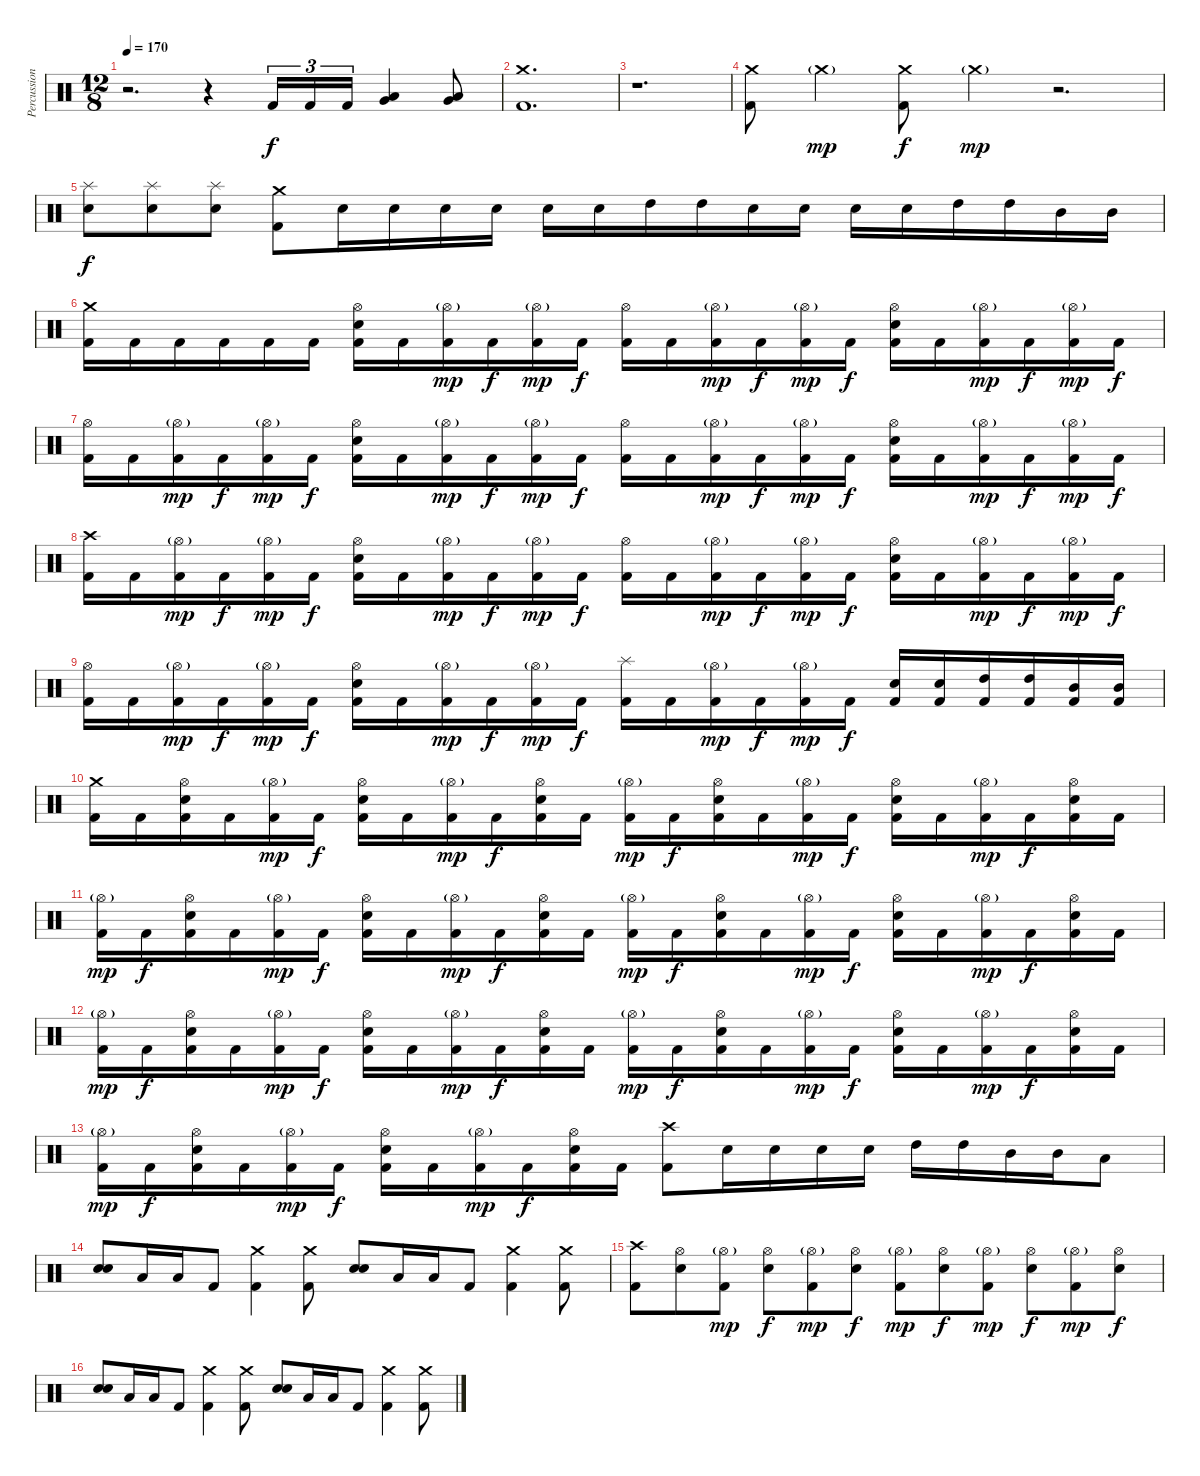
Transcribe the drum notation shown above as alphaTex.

\track ("Percussion" "Percussion") {instrument percussion}
\staff {score}
\articulation defaults
\ts (12 8)
\tempo 170
\clef neutral
\ks c
r.2{d dy mp} r.4 "Kick (hit) 2".16{tu (3 2) dy f} "Kick (hit) 2".16{tu (3 2)} "Kick (hit) 2".16{tu (3 2)} ("Very Low Tom (hit)" "Low Floor Tom (hit)").4{bd 240} ("Very Low Tom (hit)" "Low Floor Tom (hit)").8{bd 240} |
("Crash medium (hit)" "Kick (hit) 2").1{d} |
r.1{d} |
("Crash medium (hit)" "Kick (hit) 2").8 "Crash medium (hit)"{g}.4{dy mp} ("Crash medium (hit)" "Kick (hit) 2").8{dy f} "Crash medium (hit)"{g}.4{dy mp} r.2{d} |
("Splash (hit)" "Electric Snare (hit)").8{dy f} ("Splash (hit)" "Electric Snare (hit)").8 ("Splash (hit)" "Electric Snare (hit)").8 ("Crash medium (hit)" "Kick (hit) 2").8 "Electric Snare (hit)".16 "Electric Snare (hit)".16 "Electric Snare (hit)".16 "Electric Snare (hit)".16 "Electric Snare (hit)".16 "Electric Snare (hit)".16 "High Tom (hit)".16 "High Tom (hit)".16 "Electric Snare (hit)".16 "Electric Snare (hit)".16 "Electric Snare (hit)".16 "Electric Snare (hit)".16 "High Tom (hit)".16 "High Tom (hit)".16 "Mid Tom (hit)".16 "Mid Tom (hit)".16 |
("Crash medium (hit)" "Kick (hit) 2").16 "Kick (hit) 2".16 "Kick (hit) 2".16 "Kick (hit) 2".16 "Kick (hit) 2".16 "Kick (hit) 2".16 ("Hi-Hat (open)" "Electric Snare (hit)" "Kick (hit) 2").16 "Kick (hit) 2".16 ("Hi-Hat (open)"{g} "Kick (hit) 2").16{dy mp} "Kick (hit) 2".16{dy f} ("Hi-Hat (open)"{g} "Kick (hit) 2").16{dy mp} "Kick (hit) 2".16{dy f} ("Hi-Hat (open)" "Kick (hit) 2").16 "Kick (hit) 2".16 ("Hi-Hat (open)"{g} "Kick (hit) 2").16{dy mp} "Kick (hit) 2".16{dy f} ("Hi-Hat (open)"{g} "Kick (hit) 2").16{dy mp} "Kick (hit) 2".16{dy f} ("Hi-Hat (open)" "Electric Snare (hit)" "Kick (hit) 2").16 "Kick (hit) 2".16 ("Hi-Hat (open)"{g} "Kick (hit) 2").16{dy mp} "Kick (hit) 2".16{dy f} ("Hi-Hat (open)"{g} "Kick (hit) 2").16{dy mp} "Kick (hit) 2".16{dy f} |
("Hi-Hat (open)" "Kick (hit) 2").16 "Kick (hit) 2".16 ("Hi-Hat (open)"{g} "Kick (hit) 2").16{dy mp} "Kick (hit) 2".16{dy f} ("Hi-Hat (open)"{g} "Kick (hit) 2").16{dy mp} "Kick (hit) 2".16{dy f} ("Hi-Hat (open)" "Electric Snare (hit)" "Kick (hit) 2").16 "Kick (hit) 2".16 ("Hi-Hat (open)"{g} "Kick (hit) 2").16{dy mp} "Kick (hit) 2".16{dy f} ("Hi-Hat (open)"{g} "Kick (hit) 2").16{dy mp} "Kick (hit) 2".16{dy f} ("Hi-Hat (open)" "Kick (hit) 2").16 "Kick (hit) 2".16 ("Hi-Hat (open)"{g} "Kick (hit) 2").16{dy mp} "Kick (hit) 2".16{dy f} ("Hi-Hat (open)"{g} "Kick (hit) 2").16{dy mp} "Kick (hit) 2".16{dy f} ("Hi-Hat (open)" "Electric Snare (hit)" "Kick (hit) 2").16 "Kick (hit) 2".16 ("Hi-Hat (open)"{g} "Kick (hit) 2").16{dy mp} "Kick (hit) 2".16{dy f} ("Hi-Hat (open)"{g} "Kick (hit) 2").16{dy mp} "Kick (hit) 2".16{dy f} |
("Crash high (hit)" "Kick (hit) 2").16 "Kick (hit) 2".16 ("Hi-Hat (open)"{g} "Kick (hit) 2").16{dy mp} "Kick (hit) 2".16{dy f} ("Hi-Hat (open)"{g} "Kick (hit) 2").16{dy mp} "Kick (hit) 2".16{dy f} ("Hi-Hat (open)" "Electric Snare (hit)" "Kick (hit) 2").16 "Kick (hit) 2".16 ("Hi-Hat (open)"{g} "Kick (hit) 2").16{dy mp} "Kick (hit) 2".16{dy f} ("Hi-Hat (open)"{g} "Kick (hit) 2").16{dy mp} "Kick (hit) 2".16{dy f} ("Hi-Hat (open)" "Kick (hit) 2").16 "Kick (hit) 2".16 ("Hi-Hat (open)"{g} "Kick (hit) 2").16{dy mp} "Kick (hit) 2".16{dy f} ("Hi-Hat (open)"{g} "Kick (hit) 2").16{dy mp} "Kick (hit) 2".16{dy f} ("Hi-Hat (open)" "Electric Snare (hit)" "Kick (hit) 2").16 "Kick (hit) 2".16 ("Hi-Hat (open)"{g} "Kick (hit) 2").16{dy mp} "Kick (hit) 2".16{dy f} ("Hi-Hat (open)"{g} "Kick (hit) 2").16{dy mp} "Kick (hit) 2".16{dy f} |
("Hi-Hat (open)" "Kick (hit) 2").16 "Kick (hit) 2".16 ("Hi-Hat (open)"{g} "Kick (hit) 2").16{dy mp} "Kick (hit) 2".16{dy f} ("Hi-Hat (open)"{g} "Kick (hit) 2").16{dy mp} "Kick (hit) 2".16{dy f} ("Hi-Hat (open)" "Electric Snare (hit)" "Kick (hit) 2").16 "Kick (hit) 2".16 ("Hi-Hat (open)"{g} "Kick (hit) 2").16{dy mp} "Kick (hit) 2".16{dy f} ("Hi-Hat (open)"{g} "Kick (hit) 2").16{dy mp} "Kick (hit) 2".16{dy f} ("Splash (hit)" "Kick (hit) 2").16 "Kick (hit) 2".16 ("Hi-Hat (open)"{g} "Kick (hit) 2").16{dy mp} "Kick (hit) 2".16{dy f} ("Hi-Hat (open)"{g} "Kick (hit) 2").16{dy mp} "Kick (hit) 2".16{dy f} ("Electric Snare (hit)" "Kick (hit) 2").16 ("Electric Snare (hit)" "Kick (hit) 2").16 ("High Tom (hit)" "Kick (hit) 2").16 ("High Tom (hit)" "Kick (hit) 2").16 ("Mid Tom (hit)" "Kick (hit) 2").16 ("Mid Tom (hit)" "Kick (hit) 2").16 |
("Crash medium (hit)" "Kick (hit) 2").16 "Kick (hit) 2".16 ("Hi-Hat (open)" "Electric Snare (hit)" "Kick (hit) 2").16 "Kick (hit) 2".16 ("Hi-Hat (open)"{g} "Kick (hit) 2").16{dy mp} "Kick (hit) 2".16{dy f} ("Hi-Hat (open)" "Electric Snare (hit)" "Kick (hit) 2").16 "Kick (hit) 2".16 ("Hi-Hat (open)"{g} "Kick (hit) 2").16{dy mp} "Kick (hit) 2".16{dy f} ("Hi-Hat (open)" "Electric Snare (hit)" "Kick (hit) 2").16 "Kick (hit) 2".16 ("Hi-Hat (open)"{g} "Kick (hit) 2").16{dy mp} "Kick (hit) 2".16{dy f} ("Hi-Hat (open)" "Electric Snare (hit)" "Kick (hit) 2").16 "Kick (hit) 2".16 ("Hi-Hat (open)"{g} "Kick (hit) 2").16{dy mp} "Kick (hit) 2".16{dy f} ("Hi-Hat (open)" "Electric Snare (hit)" "Kick (hit) 2").16 "Kick (hit) 2".16 ("Hi-Hat (open)"{g} "Kick (hit) 2").16{dy mp} "Kick (hit) 2".16{dy f} ("Hi-Hat (open)" "Electric Snare (hit)" "Kick (hit) 2").16 "Kick (hit) 2".16 |
("Hi-Hat (open)"{g} "Kick (hit) 2").16{dy mp} "Kick (hit) 2".16{dy f} ("Hi-Hat (open)" "Electric Snare (hit)" "Kick (hit) 2").16 "Kick (hit) 2".16 ("Hi-Hat (open)"{g} "Kick (hit) 2").16{dy mp} "Kick (hit) 2".16{dy f} ("Hi-Hat (open)" "Electric Snare (hit)" "Kick (hit) 2").16 "Kick (hit) 2".16 ("Hi-Hat (open)"{g} "Kick (hit) 2").16{dy mp} "Kick (hit) 2".16{dy f} ("Hi-Hat (open)" "Electric Snare (hit)" "Kick (hit) 2").16 "Kick (hit) 2".16 ("Hi-Hat (open)"{g} "Kick (hit) 2").16{dy mp} "Kick (hit) 2".16{dy f} ("Hi-Hat (open)" "Electric Snare (hit)" "Kick (hit) 2").16 "Kick (hit) 2".16 ("Hi-Hat (open)"{g} "Kick (hit) 2").16{dy mp} "Kick (hit) 2".16{dy f} ("Hi-Hat (open)" "Electric Snare (hit)" "Kick (hit) 2").16 "Kick (hit) 2".16 ("Hi-Hat (open)"{g} "Kick (hit) 2").16{dy mp} "Kick (hit) 2".16{dy f} ("Hi-Hat (open)" "Electric Snare (hit)" "Kick (hit) 2").16 "Kick (hit) 2".16 |
("Hi-Hat (open)"{g} "Kick (hit) 2").16{dy mp} "Kick (hit) 2".16{dy f} ("Hi-Hat (open)" "Electric Snare (hit)" "Kick (hit) 2").16 "Kick (hit) 2".16 ("Hi-Hat (open)"{g} "Kick (hit) 2").16{dy mp} "Kick (hit) 2".16{dy f} ("Hi-Hat (open)" "Electric Snare (hit)" "Kick (hit) 2").16 "Kick (hit) 2".16 ("Hi-Hat (open)"{g} "Kick (hit) 2").16{dy mp} "Kick (hit) 2".16{dy f} ("Hi-Hat (open)" "Electric Snare (hit)" "Kick (hit) 2").16 "Kick (hit) 2".16 ("Hi-Hat (open)"{g} "Kick (hit) 2").16{dy mp} "Kick (hit) 2".16{dy f} ("Hi-Hat (open)" "Electric Snare (hit)" "Kick (hit) 2").16 "Kick (hit) 2".16 ("Hi-Hat (open)"{g} "Kick (hit) 2").16{dy mp} "Kick (hit) 2".16{dy f} ("Hi-Hat (open)" "Electric Snare (hit)" "Kick (hit) 2").16 "Kick (hit) 2".16 ("Hi-Hat (open)"{g} "Kick (hit) 2").16{dy mp} "Kick (hit) 2".16{dy f} ("Hi-Hat (open)" "Electric Snare (hit)" "Kick (hit) 2").16 "Kick (hit) 2".16 |
("Hi-Hat (open)"{g} "Kick (hit) 2").16{dy mp} "Kick (hit) 2".16{dy f} ("Hi-Hat (open)" "Electric Snare (hit)" "Kick (hit) 2").16 "Kick (hit) 2".16 ("Hi-Hat (open)"{g} "Kick (hit) 2").16{dy mp} "Kick (hit) 2".16{dy f} ("Hi-Hat (open)" "Electric Snare (hit)" "Kick (hit) 2").16 "Kick (hit) 2".16 ("Hi-Hat (open)"{g} "Kick (hit) 2").16{dy mp} "Kick (hit) 2".16{dy f} ("Hi-Hat (open)" "Electric Snare (hit)" "Kick (hit) 2").16 "Kick (hit) 2".16 ("Crash high (hit)" "Kick (hit) 2").8 "Electric Snare (hit)".16 "Electric Snare (hit)".16 "Electric Snare (hit)".16 "Electric Snare (hit)".16 "High Tom (hit)".16 "High Tom (hit)".16 "Mid Tom (hit)".16 "Mid Tom (hit)".16 "Low Tom (hit)".8 |
("Electric Snare (hit)" "Electric Snare (hit)").8{bd 240} "Low Floor Tom (hit)".16 "Low Floor Tom (hit)".16 "Kick (hit) 2".8 ("Crash medium (hit)" "Kick (hit) 2").4 ("Crash medium (hit)" "Kick (hit) 2").8 ("Electric Snare (hit)" "Electric Snare (hit)").8{bd 240} "Low Floor Tom (hit)".16 "Low Floor Tom (hit)".16 "Kick (hit) 2".8 ("Crash medium (hit)" "Kick (hit) 2").4 ("Crash medium (hit)" "Kick (hit) 2").8 |
("Crash high (hit)" "Kick (hit) 2").8 ("Hi-Hat (open)" "Electric Snare (hit)").8 ("Hi-Hat (open)"{g} "Kick (hit) 2").8{dy mp} ("Hi-Hat (open)" "Electric Snare (hit)").8{dy f} ("Hi-Hat (open)"{g} "Kick (hit) 2").8{dy mp} ("Hi-Hat (open)" "Electric Snare (hit)").8{dy f} ("Hi-Hat (open)"{g} "Kick (hit) 2").8{dy mp} ("Hi-Hat (open)" "Electric Snare (hit)").8{dy f} ("Hi-Hat (open)"{g} "Kick (hit) 2").8{dy mp} ("Hi-Hat (open)" "Electric Snare (hit)").8{dy f} ("Hi-Hat (open)"{g} "Kick (hit) 2").8{dy mp} ("Hi-Hat (open)" "Electric Snare (hit)").8{dy f} |
("Electric Snare (hit)" "Electric Snare (hit)").8{bd 240} "Low Floor Tom (hit)".16 "Low Floor Tom (hit)".16 "Kick (hit) 2".8 ("Crash medium (hit)" "Kick (hit) 2").4 ("Crash medium (hit)" "Kick (hit) 2").8 ("Electric Snare (hit)" "Electric Snare (hit)").8{bd 240} "Low Floor Tom (hit)".16 "Low Floor Tom (hit)".16 "Kick (hit) 2".8 ("Crash medium (hit)" "Kick (hit) 2").4 ("Crash medium (hit)" "Kick (hit) 2").8
